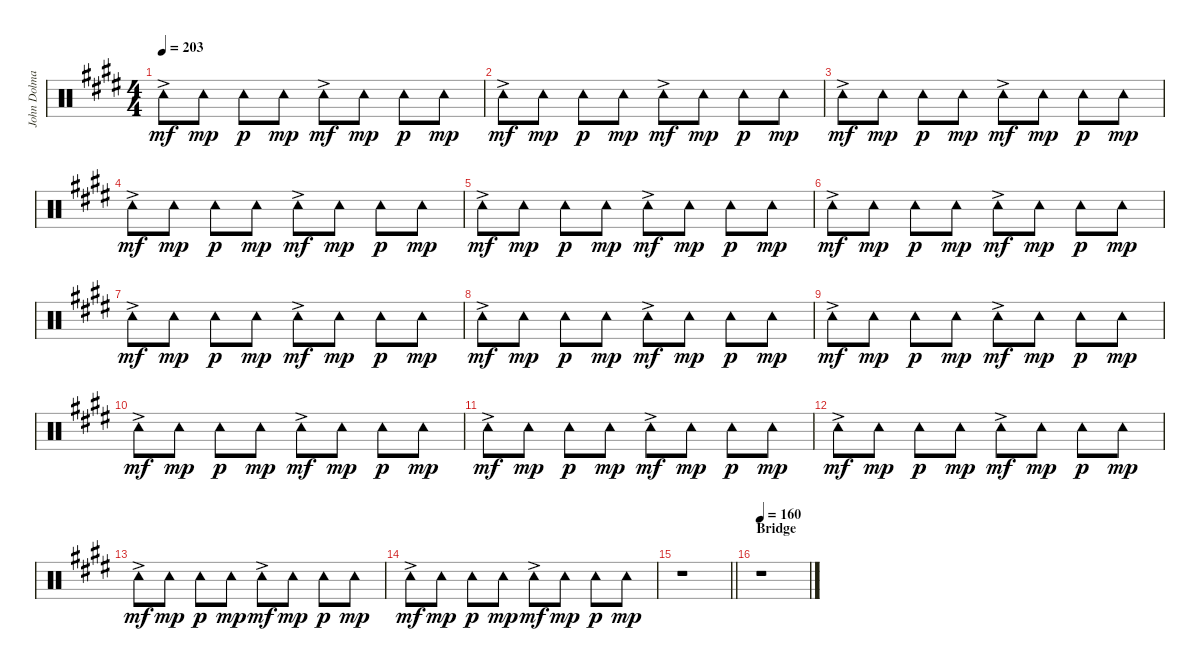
\track ("John Dolmayan [Tambourine]" "John Dolma") {instrument percussion}
\staff {score}
\articulation defaults
\ts (4 4)
\tempo 203
\clef neutral
\ks c#minor "Tambourine (hit)"{ac}.8{dy mf} "Tambourine (hit)".8{dy mp} "Tambourine (hit)".8{dy p} "Tambourine (hit)".8{dy mp} "Tambourine (hit)"{ac}.8{dy mf} "Tambourine (hit)".8{dy mp} "Tambourine (hit)".8{dy p} "Tambourine (hit)".8{dy mp}
|
"Tambourine (hit)"{ac}.8{dy mf} "Tambourine (hit)".8{dy mp} "Tambourine (hit)".8{dy p} "Tambourine (hit)".8{dy mp} "Tambourine (hit)"{ac}.8{dy mf} "Tambourine (hit)".8{dy mp} "Tambourine (hit)".8{dy p} "Tambourine (hit)".8{dy mp} |
"Tambourine (hit)"{ac}.8{dy mf} "Tambourine (hit)".8{dy mp} "Tambourine (hit)".8{dy p} "Tambourine (hit)".8{dy mp} "Tambourine (hit)"{ac}.8{dy mf} "Tambourine (hit)".8{dy mp} "Tambourine (hit)".8{dy p} "Tambourine (hit)".8{dy mp} |
"Tambourine (hit)"{ac}.8{dy mf} "Tambourine (hit)".8{dy mp} "Tambourine (hit)".8{dy p} "Tambourine (hit)".8{dy mp} "Tambourine (hit)"{ac}.8{dy mf} "Tambourine (hit)".8{dy mp} "Tambourine (hit)".8{dy p} "Tambourine (hit)".8{dy mp} |
"Tambourine (hit)"{ac}.8{dy mf} "Tambourine (hit)".8{dy mp} "Tambourine (hit)".8{dy p} "Tambourine (hit)".8{dy mp} "Tambourine (hit)"{ac}.8{dy mf} "Tambourine (hit)".8{dy mp} "Tambourine (hit)".8{dy p} "Tambourine (hit)".8{dy mp} |
"Tambourine (hit)"{ac}.8{dy mf} "Tambourine (hit)".8{dy mp} "Tambourine (hit)".8{dy p} "Tambourine (hit)".8{dy mp} "Tambourine (hit)"{ac}.8{dy mf} "Tambourine (hit)".8{dy mp} "Tambourine (hit)".8{dy p} "Tambourine (hit)".8{dy mp} |
"Tambourine (hit)"{ac}.8{dy mf} "Tambourine (hit)".8{dy mp} "Tambourine (hit)".8{dy p} "Tambourine (hit)".8{dy mp} "Tambourine (hit)"{ac}.8{dy mf} "Tambourine (hit)".8{dy mp} "Tambourine (hit)".8{dy p} "Tambourine (hit)".8{dy mp} |
"Tambourine (hit)"{ac}.8{dy mf} "Tambourine (hit)".8{dy mp} "Tambourine (hit)".8{dy p} "Tambourine (hit)".8{dy mp} "Tambourine (hit)"{ac}.8{dy mf} "Tambourine (hit)".8{dy mp} "Tambourine (hit)".8{dy p} "Tambourine (hit)".8{dy mp} |
"Tambourine (hit)"{ac}.8{dy mf} "Tambourine (hit)".8{dy mp} "Tambourine (hit)".8{dy p} "Tambourine (hit)".8{dy mp} "Tambourine (hit)"{ac}.8{dy mf} "Tambourine (hit)".8{dy mp} "Tambourine (hit)".8{dy p} "Tambourine (hit)".8{dy mp} |
"Tambourine (hit)"{ac}.8{dy mf} "Tambourine (hit)".8{dy mp} "Tambourine (hit)".8{dy p} "Tambourine (hit)".8{dy mp} "Tambourine (hit)"{ac}.8{dy mf} "Tambourine (hit)".8{dy mp} "Tambourine (hit)".8{dy p} "Tambourine (hit)".8{dy mp} |
"Tambourine (hit)"{ac}.8{dy mf} "Tambourine (hit)".8{dy mp} "Tambourine (hit)".8{dy p} "Tambourine (hit)".8{dy mp} "Tambourine (hit)"{ac}.8{dy mf} "Tambourine (hit)".8{dy mp} "Tambourine (hit)".8{dy p} "Tambourine (hit)".8{dy mp} |
"Tambourine (hit)"{ac}.8{dy mf} "Tambourine (hit)".8{dy mp} "Tambourine (hit)".8{dy p} "Tambourine (hit)".8{dy mp} "Tambourine (hit)"{ac}.8{dy mf} "Tambourine (hit)".8{dy mp} "Tambourine (hit)".8{dy p} "Tambourine (hit)".8{dy mp} |
"Tambourine (hit)"{ac}.8{dy mf} "Tambourine (hit)".8{dy mp} "Tambourine (hit)".8{dy p} "Tambourine (hit)".8{dy mp} "Tambourine (hit)"{ac}.8{dy mf} "Tambourine (hit)".8{dy mp} "Tambourine (hit)".8{dy p} "Tambourine (hit)".8{dy mp} |
"Tambourine (hit)"{ac}.8{dy mf} "Tambourine (hit)".8{dy mp} "Tambourine (hit)".8{dy p} "Tambourine (hit)".8{dy mp} "Tambourine (hit)"{ac}.8{dy mf} "Tambourine (hit)".8{dy mp} "Tambourine (hit)".8{dy p} "Tambourine (hit)".8{dy mp} |
\barLineRight lightlight
r.1 |
\section ("" "Bridge")
\tempo 160
r.1
